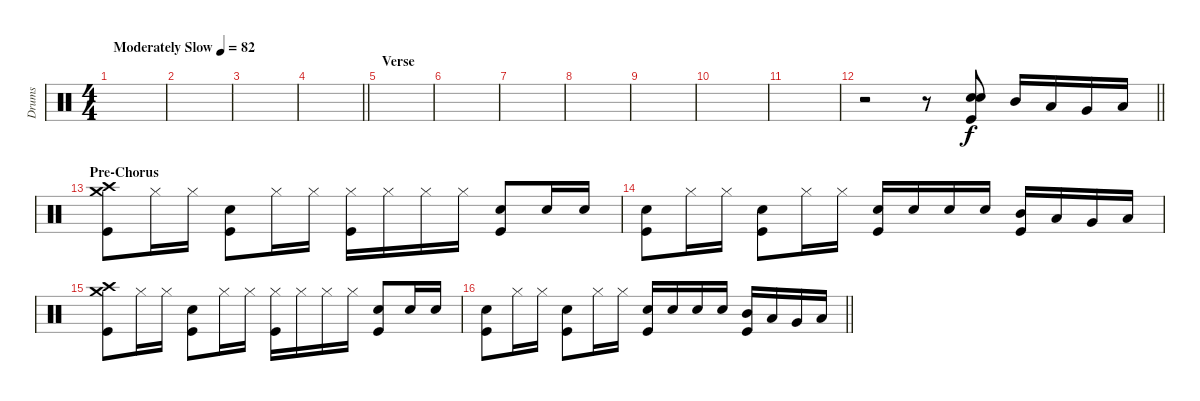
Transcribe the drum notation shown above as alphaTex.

\track ("Drums" "Drums") {instrument percussion}
\staff {score}
\articulation defaults
\ts (4 4)
\tempo (82 "Moderately Slow")
\clef neutral
\ks c
|
|
|
\barLineRight lightlight
|
\section ("" "Verse")
|
|
|
|
|
|
|
\barLineRight lightlight
r.2 r.8 ("Snare (hit) 2" "Snare (hit) 2" "Kick (hit)").8 "Mid Tom (hit)".16 "Low Tom (hit)".16 "Very Low Tom (hit)".16 "Low Floor Tom (hit)".16 |
\section ("" "Pre-Chorus")
("Crash medium (hit)" "Crash high (hit)" "Kick (hit)").8 "Hi-Hat (closed)".16 "Hi-Hat (closed)".16 ("Snare (hit) 2" "Kick (hit)").8 "Hi-Hat (closed)".16 "Hi-Hat (closed)".16 ("Hi-Hat (closed)" "Kick (hit)").16 "Hi-Hat (closed)".16 "Hi-Hat (closed)".16 "Hi-Hat (closed)".16 ("Snare (hit) 2" "Kick (hit)").8 "Snare (hit) 2".16 "Snare (hit) 2".16 |
("Snare (hit) 2" "Kick (hit)").8 "Hi-Hat (closed)".16 "Hi-Hat (closed)".16 ("Snare (hit) 2" "Kick (hit)").8 "Hi-Hat (closed)".16 "Hi-Hat (closed)".16 ("Snare (hit) 2" "Kick (hit)").16 "Snare (hit) 2".16 "Snare (hit) 2".16 "Snare (hit) 2".16 ("Mid Tom (hit)" "Kick (hit)").16 "Low Tom (hit)".16 "Very Low Tom (hit)".16 "Low Floor Tom (hit)".16 |
("Crash medium (hit)" "Crash high (hit)" "Kick (hit)").8 "Hi-Hat (closed)".16 "Hi-Hat (closed)".16 ("Snare (hit) 2" "Kick (hit)").8 "Hi-Hat (closed)".16 "Hi-Hat (closed)".16 ("Hi-Hat (closed)" "Kick (hit)").16 "Hi-Hat (closed)".16 "Hi-Hat (closed)".16 "Hi-Hat (closed)".16 ("Snare (hit) 2" "Kick (hit)").8 "Snare (hit) 2".16 "Snare (hit) 2".16 |
\barLineRight lightlight
("Snare (hit) 2" "Kick (hit)").8 "Hi-Hat (closed)".16 "Hi-Hat (closed)".16 ("Snare (hit) 2" "Kick (hit)").8 "Hi-Hat (closed)".16 "Hi-Hat (closed)".16 ("Snare (hit) 2" "Kick (hit)").16 "Snare (hit) 2".16 "Snare (hit) 2".16 "Snare (hit) 2".16 ("Mid Tom (hit)" "Kick (hit)").16 "Low Tom (hit)".16 "Very Low Tom (hit)".16 "Low Floor Tom (hit)".16
